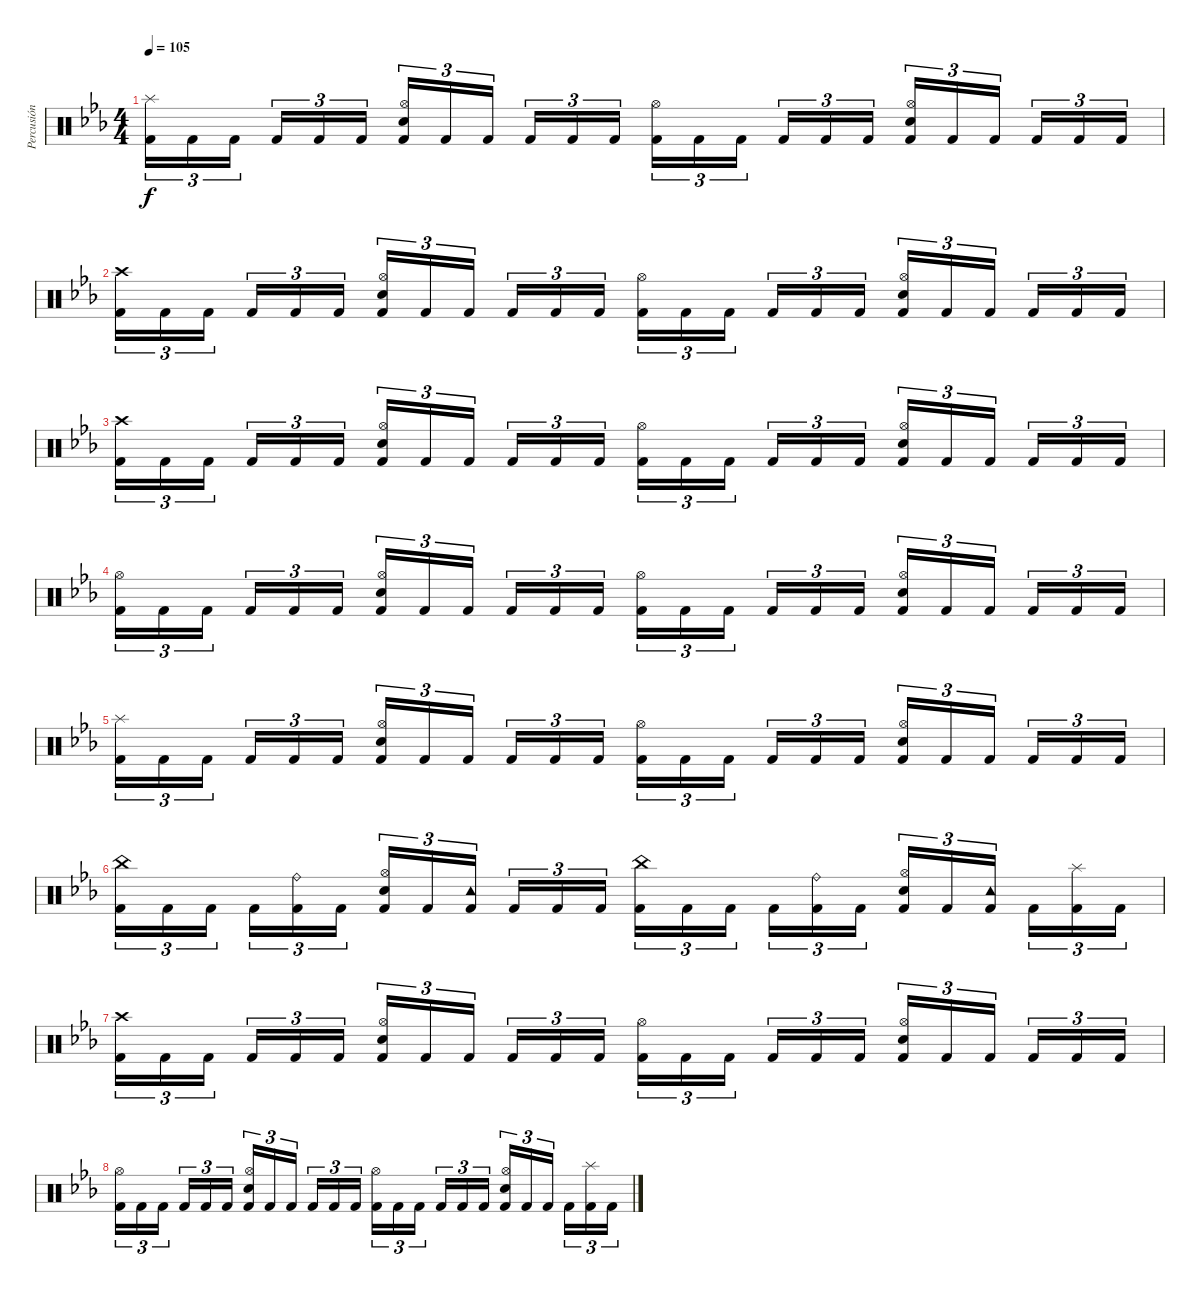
\track ("Percusión" "Percusión") {instrument percussion}
\staff {score}
\articulation defaults
\ts (4 4)
\tempo 105
\clef neutral
\ks cminor
("Splash (hit)" "Kick (hit) 2").16{tu (3 2) dy f} "Kick (hit) 2".16{tu (3 2)} "Kick (hit) 2".16{tu (3 2) beam splitsecondary} "Kick (hit) 2".16{tu (3 2)} "Kick (hit) 2".16{tu (3 2)} "Kick (hit) 2".16{tu (3 2)} ("Hi-Hat (open)" "Snare (hit) 2" "Kick (hit) 2").16{tu (3 2)} "Kick (hit) 2".16{tu (3 2)} "Kick (hit) 2".16{tu (3 2) beam splitsecondary} "Kick (hit) 2".16{tu (3 2)} "Kick (hit) 2".16{tu (3 2)} "Kick (hit) 2".16{tu (3 2)} ("Hi-Hat (open)" "Kick (hit) 2").16{tu (3 2)} "Kick (hit) 2".16{tu (3 2)} "Kick (hit) 2".16{tu (3 2) beam splitsecondary} "Kick (hit) 2".16{tu (3 2)} "Kick (hit) 2".16{tu (3 2)} "Kick (hit) 2".16{tu (3 2)} ("Hi-Hat (open)" "Snare (hit) 2" "Kick (hit) 2").16{tu (3 2)} "Kick (hit) 2".16{tu (3 2)} "Kick (hit) 2".16{tu (3 2) beam splitsecondary} "Kick (hit) 2".16{tu (3 2)} "Kick (hit) 2".16{tu (3 2)} "Kick (hit) 2".16{tu (3 2)} |
("Crash high (hit)" "Kick (hit) 2").16{tu (3 2)} "Kick (hit) 2".16{tu (3 2)} "Kick (hit) 2".16{tu (3 2) beam splitsecondary} "Kick (hit) 2".16{tu (3 2)} "Kick (hit) 2".16{tu (3 2)} "Kick (hit) 2".16{tu (3 2)} ("Hi-Hat (open)" "Snare (hit) 2" "Kick (hit) 2").16{tu (3 2)} "Kick (hit) 2".16{tu (3 2)} "Kick (hit) 2".16{tu (3 2) beam splitsecondary} "Kick (hit) 2".16{tu (3 2)} "Kick (hit) 2".16{tu (3 2)} "Kick (hit) 2".16{tu (3 2)} ("Hi-Hat (open)" "Kick (hit) 2").16{tu (3 2)} "Kick (hit) 2".16{tu (3 2)} "Kick (hit) 2".16{tu (3 2) beam splitsecondary} "Kick (hit) 2".16{tu (3 2)} "Kick (hit) 2".16{tu (3 2)} "Kick (hit) 2".16{tu (3 2)} ("Hi-Hat (open)" "Snare (hit) 2" "Kick (hit) 2").16{tu (3 2)} "Kick (hit) 2".16{tu (3 2)} "Kick (hit) 2".16{tu (3 2) beam splitsecondary} "Kick (hit) 2".16{tu (3 2)} "Kick (hit) 2".16{tu (3 2)} "Kick (hit) 2".16{tu (3 2)} |
("Crash high (hit)" "Kick (hit) 2").16{tu (3 2)} "Kick (hit) 2".16{tu (3 2)} "Kick (hit) 2".16{tu (3 2) beam splitsecondary} "Kick (hit) 2".16{tu (3 2)} "Kick (hit) 2".16{tu (3 2)} "Kick (hit) 2".16{tu (3 2)} ("Hi-Hat (open)" "Snare (hit) 2" "Kick (hit) 2").16{tu (3 2)} "Kick (hit) 2".16{tu (3 2)} "Kick (hit) 2".16{tu (3 2) beam splitsecondary} "Kick (hit) 2".16{tu (3 2)} "Kick (hit) 2".16{tu (3 2)} "Kick (hit) 2".16{tu (3 2)} ("Hi-Hat (open)" "Kick (hit) 2").16{tu (3 2)} "Kick (hit) 2".16{tu (3 2)} "Kick (hit) 2".16{tu (3 2) beam splitsecondary} "Kick (hit) 2".16{tu (3 2)} "Kick (hit) 2".16{tu (3 2)} "Kick (hit) 2".16{tu (3 2)} ("Hi-Hat (open)" "Snare (hit) 2" "Kick (hit) 2").16{tu (3 2)} "Kick (hit) 2".16{tu (3 2)} "Kick (hit) 2".16{tu (3 2) beam splitsecondary} "Kick (hit) 2".16{tu (3 2)} "Kick (hit) 2".16{tu (3 2)} "Kick (hit) 2".16{tu (3 2)} |
("Hi-Hat (open)" "Kick (hit) 2").16{tu (3 2) volume 6} "Kick (hit) 2".16{tu (3 2)} "Kick (hit) 2".16{tu (3 2) beam splitsecondary} "Kick (hit) 2".16{tu (3 2)} "Kick (hit) 2".16{tu (3 2)} "Kick (hit) 2".16{tu (3 2)} ("Hi-Hat (open)" "Snare (hit) 2" "Kick (hit) 2").16{tu (3 2)} "Kick (hit) 2".16{tu (3 2)} "Kick (hit) 2".16{tu (3 2) beam splitsecondary} "Kick (hit) 2".16{tu (3 2)} "Kick (hit) 2".16{tu (3 2)} "Kick (hit) 2".16{tu (3 2)} ("Hi-Hat (open)" "Kick (hit) 2").16{tu (3 2)} "Kick (hit) 2".16{tu (3 2)} "Kick (hit) 2".16{tu (3 2) beam splitsecondary} "Kick (hit) 2".16{tu (3 2)} "Kick (hit) 2".16{tu (3 2)} "Kick (hit) 2".16{tu (3 2)} ("Hi-Hat (open)" "Snare (hit) 2" "Kick (hit) 2").16{tu (3 2)} "Kick (hit) 2".16{tu (3 2)} "Kick (hit) 2".16{tu (3 2) beam splitsecondary} "Kick (hit) 2".16{tu (3 2)} "Kick (hit) 2".16{tu (3 2)} "Kick (hit) 2".16{tu (3 2)} |
("Splash (hit)" "Kick (hit) 2").16{tu (3 2)} "Kick (hit) 2".16{tu (3 2)} "Kick (hit) 2".16{tu (3 2) beam splitsecondary} "Kick (hit) 2".16{tu (3 2)} "Kick (hit) 2".16{tu (3 2)} "Kick (hit) 2".16{tu (3 2)} ("Hi-Hat (open)" "Snare (hit) 2" "Kick (hit) 2").16{tu (3 2)} "Kick (hit) 2".16{tu (3 2)} "Kick (hit) 2".16{tu (3 2) beam splitsecondary} "Kick (hit) 2".16{tu (3 2)} "Kick (hit) 2".16{tu (3 2)} "Kick (hit) 2".16{tu (3 2)} ("Hi-Hat (open)" "Kick (hit) 2").16{tu (3 2)} "Kick (hit) 2".16{tu (3 2)} "Kick (hit) 2".16{tu (3 2) beam splitsecondary} "Kick (hit) 2".16{tu (3 2)} "Kick (hit) 2".16{tu (3 2)} "Kick (hit) 2".16{tu (3 2)} ("Hi-Hat (open)" "Snare (hit) 2" "Kick (hit) 2").16{tu (3 2)} "Kick (hit) 2".16{tu (3 2)} "Kick (hit) 2".16{tu (3 2) beam splitsecondary} "Kick (hit) 2".16{tu (3 2)} "Kick (hit) 2".16{tu (3 2)} "Kick (hit) 2".16{tu (3 2)} |
("China (hit)" "Kick (hit) 2").16{tu (3 2)} "Kick (hit) 2".16{tu (3 2)} "Kick (hit) 2".16{tu (3 2) beam splitsecondary} "Kick (hit) 2".16{tu (3 2)} ("Ride (bell)" "Kick (hit) 2").16{tu (3 2)} "Kick (hit) 2".16{tu (3 2)} ("Hi-Hat (open)" "Snare (hit) 2" "Kick (hit) 2").16{tu (3 2)} "Kick (hit) 2".16{tu (3 2)} ("Tambourine (hit)" "Kick (hit) 2").16{tu (3 2) beam splitsecondary} "Kick (hit) 2".16{tu (3 2)} "Kick (hit) 2".16{tu (3 2)} "Kick (hit) 2".16{tu (3 2)} ("China (hit)" "Kick (hit) 2").16{tu (3 2)} "Kick (hit) 2".16{tu (3 2)} "Kick (hit) 2".16{tu (3 2) beam splitsecondary} "Kick (hit) 2".16{tu (3 2)} ("Ride (bell)" "Kick (hit) 2").16{tu (3 2)} "Kick (hit) 2".16{tu (3 2)} ("Hi-Hat (open)" "Snare (hit) 2" "Kick (hit) 2").16{tu (3 2)} "Kick (hit) 2".16{tu (3 2)} ("Tambourine (hit)" "Kick (hit) 2").16{tu (3 2) beam splitsecondary} "Kick (hit) 2".16{tu (3 2)} ("Splash (hit)" "Kick (hit) 2").16{tu (3 2)} "Kick (hit) 2".16{tu (3 2)} |
("Crash high (hit)" "Kick (hit) 2").16{tu (3 2)} "Kick (hit) 2".16{tu (3 2)} "Kick (hit) 2".16{tu (3 2) beam splitsecondary} "Kick (hit) 2".16{tu (3 2)} "Kick (hit) 2".16{tu (3 2)} "Kick (hit) 2".16{tu (3 2)} ("Hi-Hat (open)" "Snare (hit) 2" "Kick (hit) 2").16{tu (3 2)} "Kick (hit) 2".16{tu (3 2)} "Kick (hit) 2".16{tu (3 2) beam splitsecondary} "Kick (hit) 2".16{tu (3 2)} "Kick (hit) 2".16{tu (3 2)} "Kick (hit) 2".16{tu (3 2)} ("Hi-Hat (open)" "Kick (hit) 2").16{tu (3 2)} "Kick (hit) 2".16{tu (3 2)} "Kick (hit) 2".16{tu (3 2) beam splitsecondary} "Kick (hit) 2".16{tu (3 2)} "Kick (hit) 2".16{tu (3 2)} "Kick (hit) 2".16{tu (3 2)} ("Hi-Hat (open)" "Snare (hit) 2" "Kick (hit) 2").16{tu (3 2)} "Kick (hit) 2".16{tu (3 2)} "Kick (hit) 2".16{tu (3 2) beam splitsecondary} "Kick (hit) 2".16{tu (3 2)} "Kick (hit) 2".16{tu (3 2)} "Kick (hit) 2".16{tu (3 2)} |
("Hi-Hat (open)" "Kick (hit) 2").16{tu (3 2) volume 2} "Kick (hit) 2".16{tu (3 2)} "Kick (hit) 2".16{tu (3 2) beam splitsecondary} "Kick (hit) 2".16{tu (3 2)} "Kick (hit) 2".16{tu (3 2)} "Kick (hit) 2".16{tu (3 2)} ("Hi-Hat (open)" "Snare (hit) 2" "Kick (hit) 2").16{tu (3 2)} "Kick (hit) 2".16{tu (3 2)} "Kick (hit) 2".16{tu (3 2) beam splitsecondary} "Kick (hit) 2".16{tu (3 2)} "Kick (hit) 2".16{tu (3 2)} "Kick (hit) 2".16{tu (3 2)} ("Hi-Hat (open)" "Kick (hit) 2").16{tu (3 2)} "Kick (hit) 2".16{tu (3 2)} "Kick (hit) 2".16{tu (3 2) beam splitsecondary} "Kick (hit) 2".16{tu (3 2)} "Kick (hit) 2".16{tu (3 2)} "Kick (hit) 2".16{tu (3 2)} ("Hi-Hat (open)" "Snare (hit) 2" "Kick (hit) 2").16{tu (3 2)} "Kick (hit) 2".16{tu (3 2)} "Kick (hit) 2".16{tu (3 2) beam splitsecondary} "Kick (hit) 2".16{tu (3 2)} ("Splash (hit)" "Kick (hit) 2").16{tu (3 2)} "Kick (hit) 2".16{tu (3 2)}
